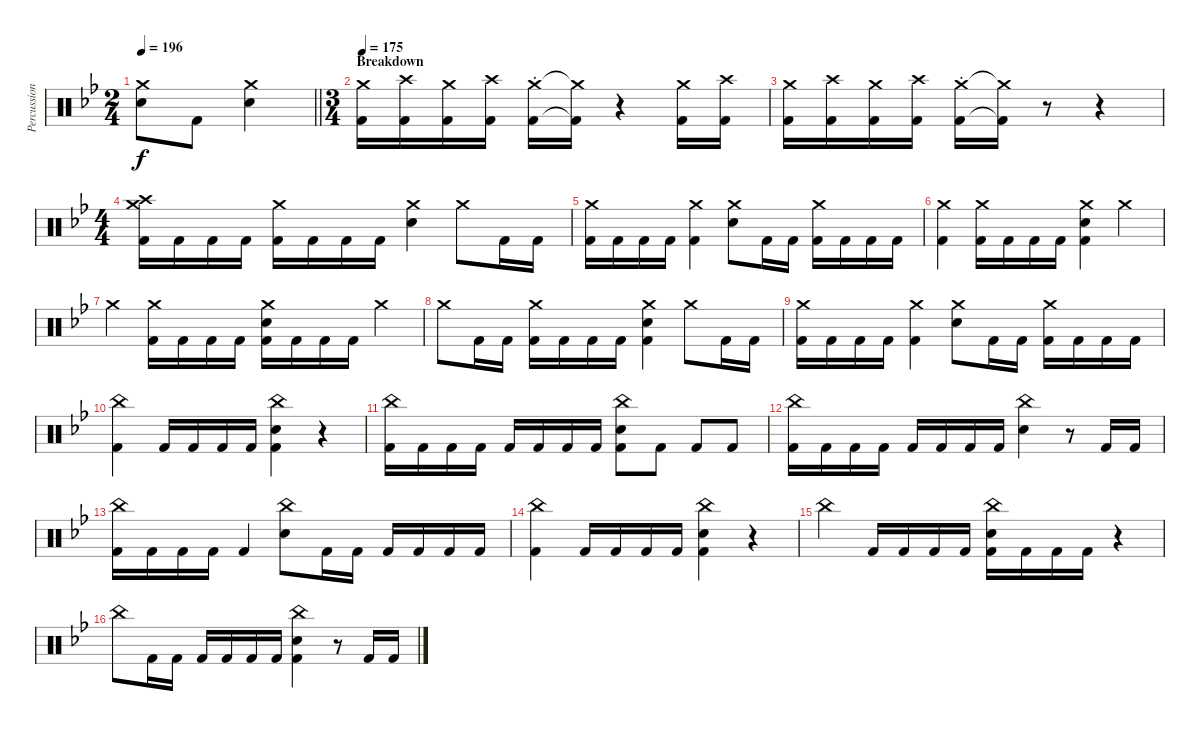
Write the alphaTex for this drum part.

\track ("Percussion" "Percussion") {instrument percussion}
\staff {score}
\articulation defaults
\ts (2 4)
\tempo 196
\clef neutral
\barLineRight lightlight
\ks bb
("Crash medium (hit)" "Electric Snare (hit)").8{dy f} "Kick (hit) 2".8 ("Crash medium (hit)" "Electric Snare (hit)").4 |
\ts (3 4)
\section ("" "Breakdown")
\tempo 175
("Crash medium (hit)" "Kick (hit) 2").16 ("Crash high (hit)" "Kick (hit) 2").16 ("Crash medium (hit)" "Kick (hit) 2").16 ("Crash high (hit)" "Kick (hit) 2").16 ("Crash medium (hit)"{st} "Kick (hit) 2").16 ("Crash medium (hit)"{t} "Kick (hit) 2"{t}).16{volume 0} r.4 ("Crash medium (hit)" "Kick (hit) 2").16{volume 14} ("Crash high (hit)" "Kick (hit) 2").16 |
("Crash medium (hit)" "Kick (hit) 2").16 ("Crash high (hit)" "Kick (hit) 2").16 ("Crash medium (hit)" "Kick (hit) 2").16 ("Crash high (hit)" "Kick (hit) 2").16 ("Crash medium (hit)"{st} "Kick (hit) 2").16 ("Crash medium (hit)"{t} "Kick (hit) 2"{t}).16{volume 0} r.8 r.4 |
\ts (4 4)
("Crash medium (hit)" "Crash high (hit)" "Kick (hit) 2").16{volume 14} "Kick (hit) 2".16 "Kick (hit) 2".16 "Kick (hit) 2".16 ("Crash medium (hit)" "Kick (hit) 2").16 "Kick (hit) 2".16 "Kick (hit) 2".16 "Kick (hit) 2".16 ("Crash medium (hit)" "Electric Snare (hit)").4 "Crash medium (hit)".8 "Kick (hit) 2".16 "Kick (hit) 2".16 |
("Crash medium (hit)" "Kick (hit) 2").16 "Kick (hit) 2".16 "Kick (hit) 2".16 "Kick (hit) 2".16 ("Crash medium (hit)" "Kick (hit) 2").4 ("Crash medium (hit)" "Electric Snare (hit)").8 "Kick (hit) 2".16 "Kick (hit) 2".16 ("Crash medium (hit)" "Kick (hit) 2").16 "Kick (hit) 2".16 "Kick (hit) 2".16 "Kick (hit) 2".16 |
("Crash medium (hit)" "Kick (hit) 2").4 ("Crash medium (hit)" "Kick (hit) 2").16 "Kick (hit) 2".16 "Kick (hit) 2".16 "Kick (hit) 2".16 ("Crash medium (hit)" "Electric Snare (hit)" "Kick (hit) 2").4 "Crash medium (hit)".4 |
"Crash medium (hit)".4 ("Crash medium (hit)" "Kick (hit) 2").16 "Kick (hit) 2".16 "Kick (hit) 2".16 "Kick (hit) 2".16 ("Crash medium (hit)" "Electric Snare (hit)" "Kick (hit) 2").16 "Kick (hit) 2".16 "Kick (hit) 2".16 "Kick (hit) 2".16 "Crash medium (hit)".4 |
"Crash medium (hit)".8 "Kick (hit) 2".16 "Kick (hit) 2".16 ("Crash medium (hit)" "Kick (hit) 2").16 "Kick (hit) 2".16 "Kick (hit) 2".16 "Kick (hit) 2".16 ("Crash medium (hit)" "Electric Snare (hit)" "Kick (hit) 2").4 "Crash medium (hit)".8 "Kick (hit) 2".16 "Kick (hit) 2".16 |
("Crash medium (hit)" "Kick (hit) 2").16 "Kick (hit) 2".16 "Kick (hit) 2".16 "Kick (hit) 2".16 ("Crash medium (hit)" "Kick (hit) 2").4 ("Crash medium (hit)" "Electric Snare (hit)").8 "Kick (hit) 2".16 "Kick (hit) 2".16 ("Crash medium (hit)" "Kick (hit) 2").16 "Kick (hit) 2".16 "Kick (hit) 2".16 "Kick (hit) 2".16 |
("China (hit)" "Kick (hit) 2").4 "Kick (hit) 2".16 "Kick (hit) 2".16 "Kick (hit) 2".16 "Kick (hit) 2".16 ("China (hit)" "Electric Snare (hit)" "Kick (hit) 2").4 r.4 |
("China (hit)" "Kick (hit) 2").16 "Kick (hit) 2".16 "Kick (hit) 2".16 "Kick (hit) 2".16 "Kick (hit) 2".16 "Kick (hit) 2".16 "Kick (hit) 2".16 "Kick (hit) 2".16 ("China (hit)" "Electric Snare (hit)" "Kick (hit) 2").8 "Kick (hit) 2".8 "Kick (hit) 2".8 "Kick (hit) 2".8 |
("China (hit)" "Kick (hit) 2").16 "Kick (hit) 2".16 "Kick (hit) 2".16 "Kick (hit) 2".16 "Kick (hit) 2".16 "Kick (hit) 2".16 "Kick (hit) 2".16 "Kick (hit) 2".16 ("China (hit)" "Electric Snare (hit)").4 r.8 "Kick (hit) 2".16 "Kick (hit) 2".16 |
("China (hit)" "Kick (hit) 2").16 "Kick (hit) 2".16 "Kick (hit) 2".16 "Kick (hit) 2".16 "Kick (hit) 2".4 ("China (hit)" "Electric Snare (hit)").8 "Kick (hit) 2".16 "Kick (hit) 2".16 "Kick (hit) 2".16 "Kick (hit) 2".16 "Kick (hit) 2".16 "Kick (hit) 2".16 |
("China (hit)" "Kick (hit) 2").4 "Kick (hit) 2".16 "Kick (hit) 2".16 "Kick (hit) 2".16 "Kick (hit) 2".16 ("China (hit)" "Electric Snare (hit)" "Kick (hit) 2").4 r.4 |
"China (hit)".4 "Kick (hit) 2".16 "Kick (hit) 2".16 "Kick (hit) 2".16 "Kick (hit) 2".16 ("China (hit)" "Electric Snare (hit)" "Kick (hit) 2").16 "Kick (hit) 2".16 "Kick (hit) 2".16 "Kick (hit) 2".16 r.4 |
"China (hit)".8 "Kick (hit) 2".16 "Kick (hit) 2".16 "Kick (hit) 2".16 "Kick (hit) 2".16 "Kick (hit) 2".16 "Kick (hit) 2".16 ("China (hit)" "Electric Snare (hit)" "Kick (hit) 2").4 r.8 "Kick (hit) 2".16 "Kick (hit) 2".16
